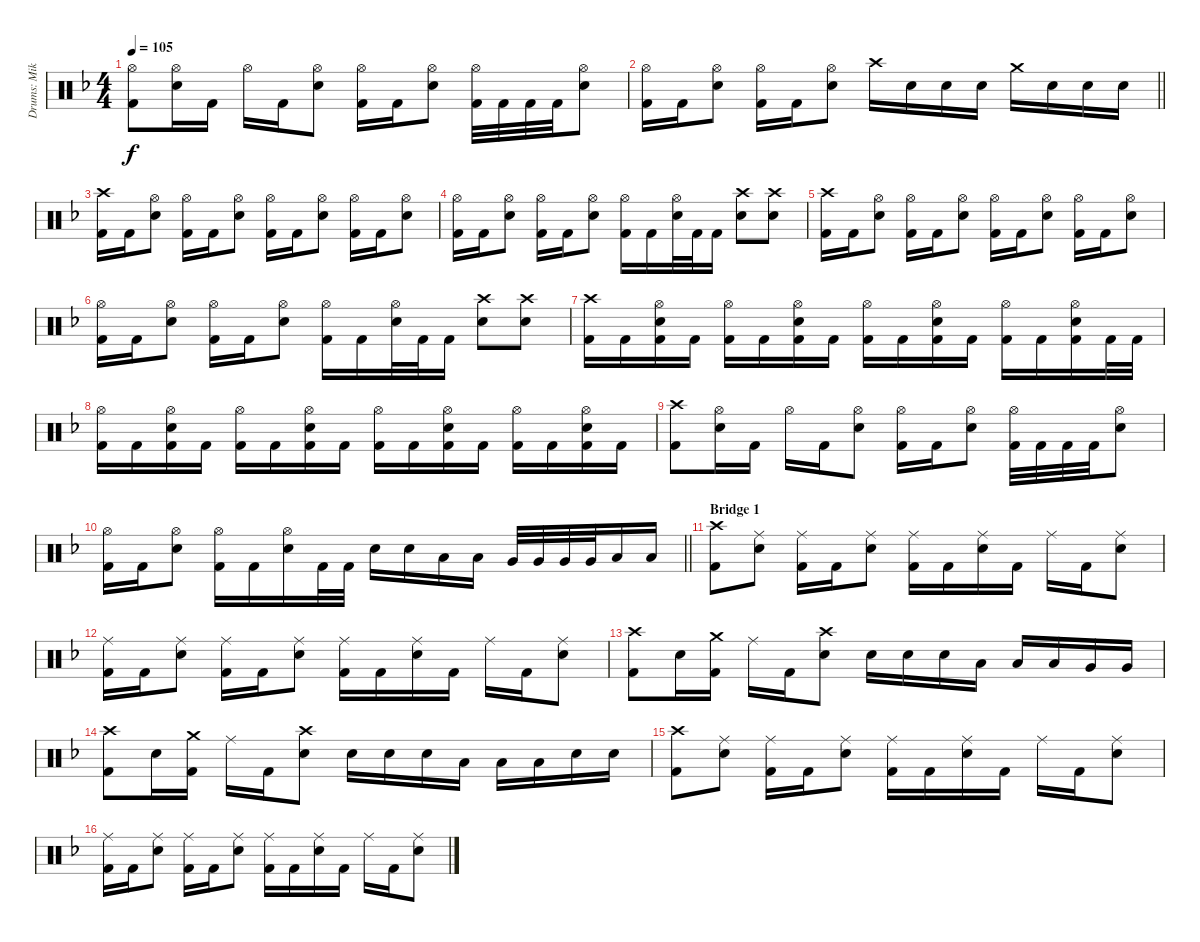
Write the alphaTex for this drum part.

\track ("Drums: Mikko Korsbäck" "Drums: Mik") {instrument percussion}
\staff {score}
\articulation defaults
\ts (4 4)
\tempo 105
\clef neutral
\ks dminor
("Hi-Hat (open)" "Kick (hit) 2").8{dy f} ("Hi-Hat (open)" "Electric Snare (hit)").16 "Kick (hit) 2".16 "Hi-Hat (open)".16 "Kick (hit) 2".16 ("Hi-Hat (open)" "Electric Snare (hit)").8 ("Hi-Hat (open)" "Kick (hit) 2").16 "Kick (hit) 2".16 ("Hi-Hat (open)" "Electric Snare (hit)").8 ("Hi-Hat (open)" "Kick (hit) 2").32 "Kick (hit) 2".32 "Kick (hit) 2".32 "Kick (hit) 2".32 ("Hi-Hat (open)" "Electric Snare (hit)").8 |
\barLineRight lightlight
("Hi-Hat (open)" "Kick (hit) 2").16 "Kick (hit) 2".16 ("Hi-Hat (open)" "Electric Snare (hit)").8 ("Hi-Hat (open)" "Kick (hit) 2").16 "Kick (hit) 2".16 ("Hi-Hat (open)" "Electric Snare (hit)").8 "Crash high (hit)".16 "Electric Snare (hit)".16 "Electric Snare (hit)".16 "Electric Snare (hit)".16 "Crash medium (hit)".16 "Electric Snare (hit)".16 "Electric Snare (hit)".16 "Electric Snare (hit)".16 |
("Crash high (hit)" "Kick (hit) 2").16 "Kick (hit) 2".16 ("Hi-Hat (open)" "Electric Snare (hit)").8 ("Hi-Hat (open)" "Kick (hit) 2").16 "Kick (hit) 2".16 ("Hi-Hat (open)" "Electric Snare (hit)").8 ("Hi-Hat (open)" "Kick (hit) 2").16 "Kick (hit) 2".16 ("Hi-Hat (open)" "Electric Snare (hit)").8 ("Hi-Hat (open)" "Kick (hit) 2").16 "Kick (hit) 2".16 ("Hi-Hat (open)" "Electric Snare (hit)").8 |
("Hi-Hat (open)" "Kick (hit) 2").16 "Kick (hit) 2".16 ("Hi-Hat (open)" "Electric Snare (hit)").8 ("Hi-Hat (open)" "Kick (hit) 2").16 "Kick (hit) 2".16 ("Hi-Hat (open)" "Electric Snare (hit)").8 ("Hi-Hat (open)" "Kick (hit) 2").16 "Kick (hit) 2".16 ("Hi-Hat (open)" "Electric Snare (hit)").32 "Kick (hit) 2".32 "Kick (hit) 2".16 ("Crash high (hit)" "Electric Snare (hit)").8 ("Crash high (hit)" "Electric Snare (hit)").8 |
("Crash high (hit)" "Kick (hit) 2").16 "Kick (hit) 2".16 ("Hi-Hat (open)" "Electric Snare (hit)").8 ("Hi-Hat (open)" "Kick (hit) 2").16 "Kick (hit) 2".16 ("Hi-Hat (open)" "Electric Snare (hit)").8 ("Hi-Hat (open)" "Kick (hit) 2").16 "Kick (hit) 2".16 ("Hi-Hat (open)" "Electric Snare (hit)").8 ("Hi-Hat (open)" "Kick (hit) 2").16 "Kick (hit) 2".16 ("Hi-Hat (open)" "Electric Snare (hit)").8 |
("Hi-Hat (open)" "Kick (hit) 2").16 "Kick (hit) 2".16 ("Hi-Hat (open)" "Electric Snare (hit)").8 ("Hi-Hat (open)" "Kick (hit) 2").16 "Kick (hit) 2".16 ("Hi-Hat (open)" "Electric Snare (hit)").8 ("Hi-Hat (open)" "Kick (hit) 2").16 "Kick (hit) 2".16 ("Hi-Hat (open)" "Electric Snare (hit)").32 "Kick (hit) 2".32 "Kick (hit) 2".16 ("Crash high (hit)" "Electric Snare (hit)").8 ("Crash high (hit)" "Electric Snare (hit)").8 |
("Crash high (hit)" "Kick (hit) 2").16 "Kick (hit) 2".16 ("Hi-Hat (open)" "Electric Snare (hit)" "Kick (hit) 2").16 "Kick (hit) 2".16 ("Hi-Hat (open)" "Kick (hit) 2").16 "Kick (hit) 2".16 ("Hi-Hat (open)" "Electric Snare (hit)" "Kick (hit) 2").16 "Kick (hit) 2".16 ("Hi-Hat (open)" "Kick (hit) 2").16 "Kick (hit) 2".16 ("Hi-Hat (open)" "Electric Snare (hit)" "Kick (hit) 2").16 "Kick (hit) 2".16 ("Hi-Hat (open)" "Kick (hit) 2").16 "Kick (hit) 2".16 ("Hi-Hat (open)" "Electric Snare (hit)" "Kick (hit) 2").16 "Kick (hit) 2".32 "Kick (hit) 2".32 |
("Hi-Hat (open)" "Kick (hit) 2").16 "Kick (hit) 2".16 ("Hi-Hat (open)" "Electric Snare (hit)" "Kick (hit) 2").16 "Kick (hit) 2".16 ("Hi-Hat (open)" "Kick (hit) 2").16 "Kick (hit) 2".16 ("Hi-Hat (open)" "Electric Snare (hit)" "Kick (hit) 2").16 "Kick (hit) 2".16 ("Hi-Hat (open)" "Kick (hit) 2").16 "Kick (hit) 2".16 ("Hi-Hat (open)" "Electric Snare (hit)" "Kick (hit) 2").16 "Kick (hit) 2".16 ("Hi-Hat (open)" "Kick (hit) 2").16 "Kick (hit) 2".16 ("Hi-Hat (open)" "Electric Snare (hit)" "Kick (hit) 2").16 "Kick (hit) 2".16 |
("Crash high (hit)" "Kick (hit) 2").8 ("Hi-Hat (open)" "Electric Snare (hit)").16 "Kick (hit) 2".16 "Hi-Hat (open)".16 "Kick (hit) 2".16 ("Hi-Hat (open)" "Electric Snare (hit)").8 ("Hi-Hat (open)" "Kick (hit) 2").16 "Kick (hit) 2".16 ("Hi-Hat (open)" "Electric Snare (hit)").8 ("Hi-Hat (open)" "Kick (hit) 2").32 "Kick (hit) 2".32 "Kick (hit) 2".32 "Kick (hit) 2".32 ("Hi-Hat (open)" "Electric Snare (hit)").8 |
\barLineRight lightlight
("Hi-Hat (open)" "Kick (hit) 2").16 "Kick (hit) 2".16 ("Hi-Hat (open)" "Electric Snare (hit)").8 ("Hi-Hat (open)" "Kick (hit) 2").16 "Kick (hit) 2".16 ("Hi-Hat (open)" "Electric Snare (hit)").16 "Kick (hit) 2".32 "Kick (hit) 2".32 "Electric Snare (hit)".16 "Electric Snare (hit)".16 "Low Floor Tom (hit)".16 "Low Floor Tom (hit)".16 "Very Low Tom (hit)".32 "Very Low Tom (hit)".32 "Very Low Tom (hit)".32 "Very Low Tom (hit)".32 "Low Floor Tom (hit)".16 "Low Floor Tom (hit)".16 |
\section ("" "Bridge 1")
("Crash high (hit)" "Kick (hit) 2").8 ("Ride (middle)" "Electric Snare (hit)").8 ("Ride (middle)" "Kick (hit) 2").16 "Kick (hit) 2".16 ("Ride (middle)" "Electric Snare (hit)").8 ("Ride (middle)" "Kick (hit) 2").16 "Kick (hit) 2".16 ("Ride (middle)" "Electric Snare (hit)").16 "Kick (hit) 2".16 "Ride (middle)".16 "Kick (hit) 2".16 ("Ride (middle)" "Electric Snare (hit)").8 |
("Ride (middle)" "Kick (hit) 2").16 "Kick (hit) 2".16 ("Ride (middle)" "Electric Snare (hit)").8 ("Ride (middle)" "Kick (hit) 2").16 "Kick (hit) 2".16 ("Ride (middle)" "Electric Snare (hit)").8 ("Ride (middle)" "Kick (hit) 2").16 "Kick (hit) 2".16 ("Ride (middle)" "Electric Snare (hit)").16 "Kick (hit) 2".16 "Ride (middle)".16 "Kick (hit) 2".16 ("Ride (middle)" "Electric Snare (hit)").8 |
("Crash high (hit)" "Kick (hit) 2").8 "Electric Snare (hit)".16 ("Crash medium (hit)" "Kick (hit) 2").16 "Ride (middle)".16 "Kick (hit) 2".16 ("Crash high (hit)" "Electric Snare (hit)").8 "Electric Snare (hit)".16 "Electric Snare (hit)".16 "Electric Snare (hit)".16 "Low Tom (hit)".16 "Low Tom (hit)".16 "Low Tom (hit)".16 "Very Low Tom (hit)".16 "Very Low Tom (hit)".16 |
("Crash high (hit)" "Kick (hit) 2").8 "Electric Snare (hit)".16 ("Crash medium (hit)" "Kick (hit) 2").16 "Ride (middle)".16 "Kick (hit) 2".16 ("Crash high (hit)" "Electric Snare (hit)").8 "Electric Snare (hit)".16 "Electric Snare (hit)".16 "Electric Snare (hit)".16 "Low Tom (hit)".16 "Low Tom (hit)".16 "Low Tom (hit)".16 "Electric Snare (hit)".16 "Electric Snare (hit)".16 |
("Crash high (hit)" "Kick (hit) 2").8 ("Ride (middle)" "Electric Snare (hit)").8 ("Ride (middle)" "Kick (hit) 2").16 "Kick (hit) 2".16 ("Ride (middle)" "Electric Snare (hit)").8 ("Ride (middle)" "Kick (hit) 2").16 "Kick (hit) 2".16 ("Ride (middle)" "Electric Snare (hit)").16 "Kick (hit) 2".16 "Ride (middle)".16 "Kick (hit) 2".16 ("Ride (middle)" "Electric Snare (hit)").8 |
("Ride (middle)" "Kick (hit) 2").16 "Kick (hit) 2".16 ("Ride (middle)" "Electric Snare (hit)").8 ("Ride (middle)" "Kick (hit) 2").16 "Kick (hit) 2".16 ("Ride (middle)" "Electric Snare (hit)").8 ("Ride (middle)" "Kick (hit) 2").16 "Kick (hit) 2".16 ("Ride (middle)" "Electric Snare (hit)").16 "Kick (hit) 2".16 "Ride (middle)".16 "Kick (hit) 2".16 ("Ride (middle)" "Electric Snare (hit)").8
